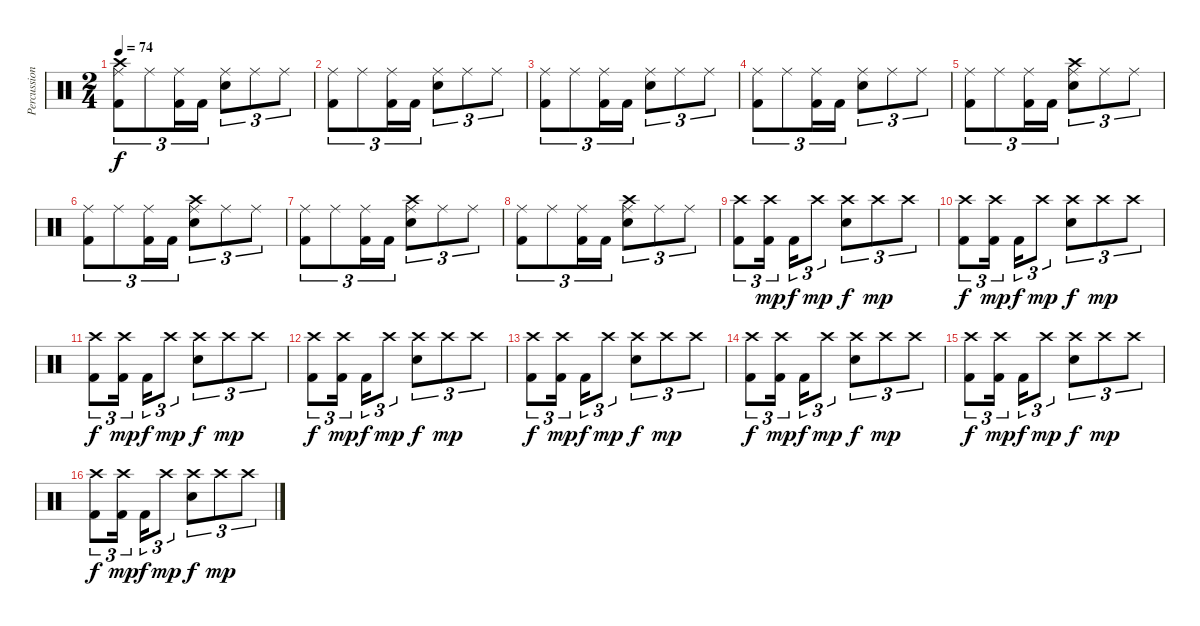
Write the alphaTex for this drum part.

\track ("Percussion" "Percussion") {instrument percussion}
\staff {score}
\articulation defaults
\ts (2 4)
\tempo 74
\clef neutral
\ks c
("Ride (middle)" "Crash high (hit)" "Kick (hit) 2").8{tu (3 2) dy f} "Ride (middle)".8{tu (3 2)} ("Ride (middle)" "Kick (hit) 2").16{tu (3 2)} "Kick (hit) 2".16{tu (3 2)} ("Ride (middle)" "Snare (hit) 2").8{tu (3 2)} "Ride (middle)".8{tu (3 2)} "Ride (middle)".8{tu (3 2)} |
("Ride (middle)" "Kick (hit) 2").8{tu (3 2)} "Ride (middle)".8{tu (3 2)} ("Ride (middle)" "Kick (hit) 2").16{tu (3 2)} "Kick (hit) 2".16{tu (3 2)} ("Ride (middle)" "Snare (hit) 2").8{tu (3 2)} "Ride (middle)".8{tu (3 2)} "Ride (middle)".8{tu (3 2)} |
("Ride (middle)" "Kick (hit) 2").8{tu (3 2)} "Ride (middle)".8{tu (3 2)} ("Ride (middle)" "Kick (hit) 2").16{tu (3 2)} "Kick (hit) 2".16{tu (3 2)} ("Ride (middle)" "Snare (hit) 2").8{tu (3 2)} "Ride (middle)".8{tu (3 2)} "Ride (middle)".8{tu (3 2)} |
("Ride (middle)" "Kick (hit) 2").8{tu (3 2)} "Ride (middle)".8{tu (3 2)} ("Ride (middle)" "Kick (hit) 2").16{tu (3 2)} "Kick (hit) 2".16{tu (3 2)} ("Ride (middle)" "Snare (hit) 2").8{tu (3 2)} "Ride (middle)".8{tu (3 2)} "Ride (middle)".8{tu (3 2)} |
("Ride (middle)" "Kick (hit) 2").8{tu (3 2)} "Ride (middle)".8{tu (3 2)} ("Ride (middle)" "Kick (hit) 2").16{tu (3 2)} "Kick (hit) 2".16{tu (3 2)} ("Ride (middle)" "Crash high (hit)" "Snare (hit) 2").8{tu (3 2)} "Ride (middle)".8{tu (3 2)} "Ride (middle)".8{tu (3 2)} |
("Ride (middle)" "Kick (hit) 2").8{tu (3 2)} "Ride (middle)".8{tu (3 2)} ("Ride (middle)" "Kick (hit) 2").16{tu (3 2)} "Kick (hit) 2".16{tu (3 2)} ("Ride (middle)" "Crash high (hit)" "Snare (hit) 2").8{tu (3 2)} "Ride (middle)".8{tu (3 2)} "Ride (middle)".8{tu (3 2)} |
("Ride (middle)" "Kick (hit) 2").8{tu (3 2)} "Ride (middle)".8{tu (3 2)} ("Ride (middle)" "Kick (hit) 2").16{tu (3 2)} "Kick (hit) 2".16{tu (3 2)} ("Ride (middle)" "Crash high (hit)" "Snare (hit) 2").8{tu (3 2)} "Ride (middle)".8{tu (3 2)} "Ride (middle)".8{tu (3 2)} |
("Ride (middle)" "Kick (hit) 2").8{tu (3 2)} "Ride (middle)".8{tu (3 2)} ("Ride (middle)" "Kick (hit) 2").16{tu (3 2)} "Kick (hit) 2".16{tu (3 2)} ("Ride (middle)" "Crash high (hit)" "Snare (hit) 2").8{tu (3 2)} "Ride (middle)".8{tu (3 2)} "Ride (middle)".8{tu (3 2)} |
("Crash high (hit)" "Kick (hit) 2").8{tu (3 2)} ("Crash high (hit)" "Kick (hit) 2").16{tu (3 2) dy mp} "Kick (hit) 2".16{tu (3 2) dy f} "Crash high (hit)".8{tu (3 2) dy mp} ("Crash high (hit)" "Snare (hit) 2").8{tu (3 2) dy f} "Crash high (hit)".8{tu (3 2) dy mp} "Crash high (hit)".8{tu (3 2)} |
("Crash high (hit)" "Kick (hit) 2").8{tu (3 2) dy f} ("Crash high (hit)" "Kick (hit) 2").16{tu (3 2) dy mp} "Kick (hit) 2".16{tu (3 2) dy f} "Crash high (hit)".8{tu (3 2) dy mp} ("Crash high (hit)" "Snare (hit) 2").8{tu (3 2) dy f} "Crash high (hit)".8{tu (3 2) dy mp} "Crash high (hit)".8{tu (3 2)} |
("Crash high (hit)" "Kick (hit) 2").8{tu (3 2) dy f} ("Crash high (hit)" "Kick (hit) 2").16{tu (3 2) dy mp} "Kick (hit) 2".16{tu (3 2) dy f} "Crash high (hit)".8{tu (3 2) dy mp} ("Crash high (hit)" "Snare (hit) 2").8{tu (3 2) dy f} "Crash high (hit)".8{tu (3 2) dy mp} "Crash high (hit)".8{tu (3 2)} |
("Crash high (hit)" "Kick (hit) 2").8{tu (3 2) dy f} ("Crash high (hit)" "Kick (hit) 2").16{tu (3 2) dy mp} "Kick (hit) 2".16{tu (3 2) dy f} "Crash high (hit)".8{tu (3 2) dy mp} ("Crash high (hit)" "Snare (hit) 2").8{tu (3 2) dy f} "Crash high (hit)".8{tu (3 2) dy mp} "Crash high (hit)".8{tu (3 2)} |
("Crash high (hit)" "Kick (hit) 2").8{tu (3 2) dy f} ("Crash high (hit)" "Kick (hit) 2").16{tu (3 2) dy mp} "Kick (hit) 2".16{tu (3 2) dy f} "Crash high (hit)".8{tu (3 2) dy mp} ("Crash high (hit)" "Snare (hit) 2").8{tu (3 2) dy f} "Crash high (hit)".8{tu (3 2) dy mp} "Crash high (hit)".8{tu (3 2)} |
("Crash high (hit)" "Kick (hit) 2").8{tu (3 2) dy f} ("Crash high (hit)" "Kick (hit) 2").16{tu (3 2) dy mp} "Kick (hit) 2".16{tu (3 2) dy f} "Crash high (hit)".8{tu (3 2) dy mp} ("Crash high (hit)" "Snare (hit) 2").8{tu (3 2) dy f} "Crash high (hit)".8{tu (3 2) dy mp} "Crash high (hit)".8{tu (3 2)} |
("Crash high (hit)" "Kick (hit) 2").8{tu (3 2) dy f} ("Crash high (hit)" "Kick (hit) 2").16{tu (3 2) dy mp} "Kick (hit) 2".16{tu (3 2) dy f} "Crash high (hit)".8{tu (3 2) dy mp} ("Crash high (hit)" "Snare (hit) 2").8{tu (3 2) dy f} "Crash high (hit)".8{tu (3 2) dy mp} "Crash high (hit)".8{tu (3 2)} |
("Crash high (hit)" "Kick (hit) 2").8{tu (3 2) dy f} ("Crash high (hit)" "Kick (hit) 2").16{tu (3 2) dy mp} "Kick (hit) 2".16{tu (3 2) dy f} "Crash high (hit)".8{tu (3 2) dy mp} ("Crash high (hit)" "Snare (hit) 2").8{tu (3 2) dy f} "Crash high (hit)".8{tu (3 2) dy mp} "Crash high (hit)".8{tu (3 2)}
